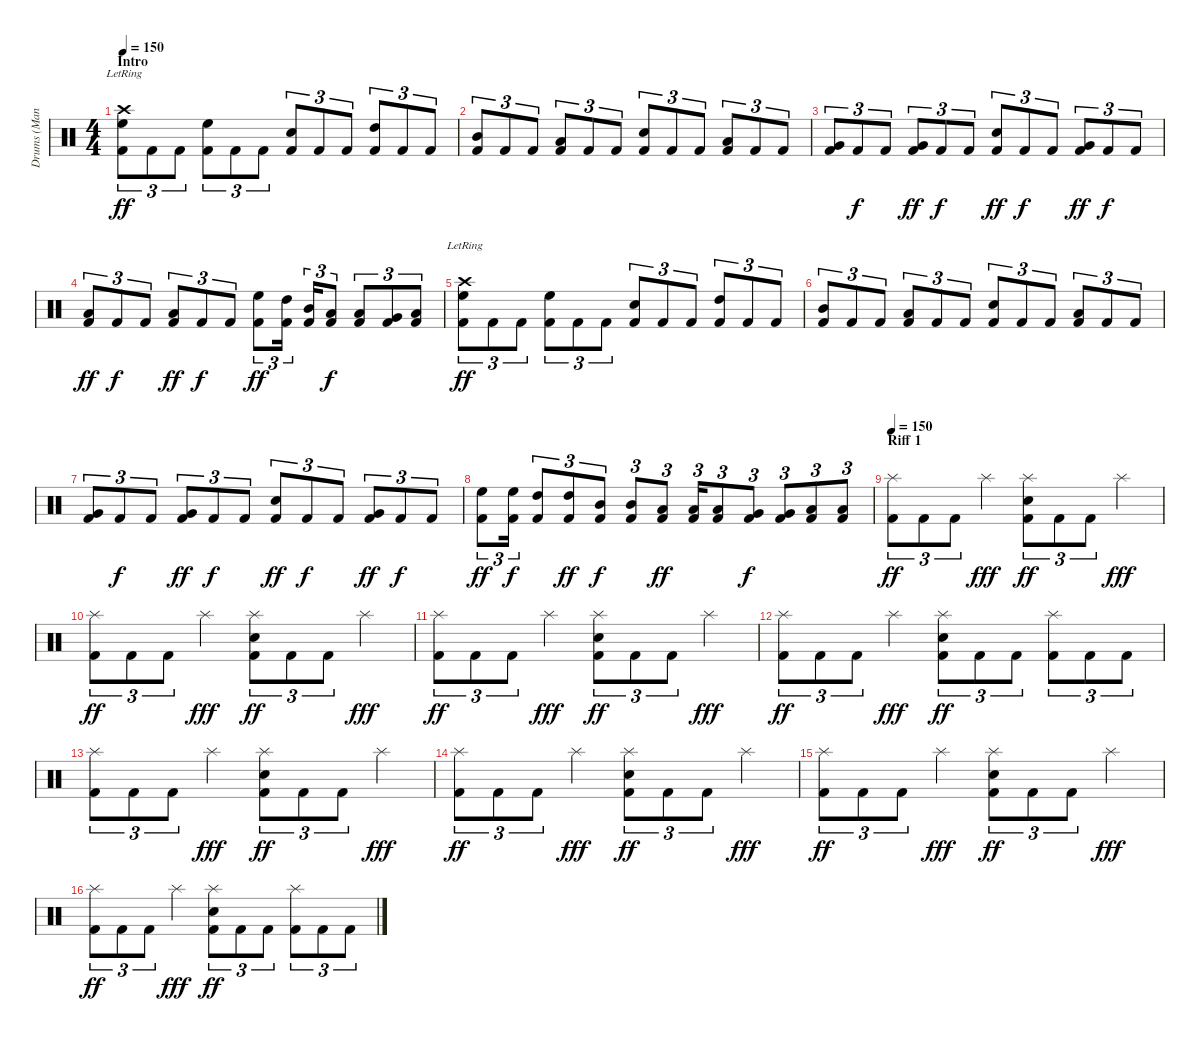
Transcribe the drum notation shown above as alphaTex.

\track ("Drums (Mancino)" "Drums (Man") {instrument percussion}
\staff {score}
\articulation defaults
\ts (4 4)
\section ("" "Intro")
\tempo 150
\clef neutral
\ks c
("Crash high (hit)"{lr} "High Floor Tom (hit)" "Kick (hit) 2").8{tu (3 2) dy ff} "Kick (hit) 2".8{tu (3 2)} "Kick (hit) 2".8{tu (3 2)} ("High Floor Tom (hit)" "Kick (hit) 2").8{tu (3 2)} "Kick (hit) 2".8{tu (3 2)} "Kick (hit) 2".8{tu (3 2)} ("Electric Snare (hit)" "Kick (hit) 2").8{tu (3 2)} "Kick (hit) 2".8{tu (3 2)} "Kick (hit) 2".8{tu (3 2)} ("High Tom (hit)" "Kick (hit) 2").8{tu (3 2)} "Kick (hit) 2".8{tu (3 2)} "Kick (hit) 2".8{tu (3 2)} |
("Mid Tom (hit)" "Kick (hit) 2").8{tu (3 2)} "Kick (hit) 2".8{tu (3 2)} "Kick (hit) 2".8{tu (3 2)} ("Low Tom (hit)" "Kick (hit) 2").8{tu (3 2)} "Kick (hit) 2".8{tu (3 2)} "Kick (hit) 2".8{tu (3 2)} ("Electric Snare (hit)" "Kick (hit) 2").8{tu (3 2)} "Kick (hit) 2".8{tu (3 2)} "Kick (hit) 2".8{tu (3 2)} ("Low Tom (hit)" "Kick (hit) 2").8{tu (3 2)} "Kick (hit) 2".8{tu (3 2)} "Kick (hit) 2".8{tu (3 2)} |
("Very Low Tom (hit)" "Kick (hit) 2").8{tu (3 2)} "Kick (hit) 2".8{tu (3 2) dy f} "Kick (hit) 2".8{tu (3 2)} ("Very Low Tom (hit)" "Kick (hit) 2").8{tu (3 2) dy ff} "Kick (hit) 2".8{tu (3 2) dy f} "Kick (hit) 2".8{tu (3 2)} ("Electric Snare (hit)" "Kick (hit) 2").8{tu (3 2) dy ff} "Kick (hit) 2".8{tu (3 2) dy f} "Kick (hit) 2".8{tu (3 2)} ("Very Low Tom (hit)" "Kick (hit) 2").8{tu (3 2) dy ff} "Kick (hit) 2".8{tu (3 2) dy f} "Kick (hit) 2".8{tu (3 2)} |
("Low Floor Tom (hit)" "Kick (hit) 2").8{tu (3 2) dy ff} "Kick (hit) 2".8{tu (3 2) dy f} "Kick (hit) 2".8{tu (3 2)} ("Low Floor Tom (hit)" "Kick (hit) 2").8{tu (3 2) dy ff} "Kick (hit) 2".8{tu (3 2) dy f} "Kick (hit) 2".8{tu (3 2)} ("High Floor Tom (hit)" "Kick (hit) 2").8{tu (3 2) dy ff} ("High Tom (hit)" "Kick (hit) 2").16{tu (3 2)} ("Mid Tom (hit)" "Kick (hit) 2").16{tu (3 2)} ("Low Tom (hit)" "Kick (hit) 2").8{tu (3 2) dy f} ("Low Tom (hit)" "Kick (hit) 2").8{tu (3 2)} ("Very Low Tom (hit)" "Kick (hit) 2").8{tu (3 2)} ("Low Floor Tom (hit)" "Kick (hit) 2").8{tu (3 2)} |
("Crash high (hit)"{lr} "High Floor Tom (hit)" "Kick (hit) 2").8{tu (3 2) dy ff} "Kick (hit) 2".8{tu (3 2)} "Kick (hit) 2".8{tu (3 2)} ("High Floor Tom (hit)" "Kick (hit) 2").8{tu (3 2)} "Kick (hit) 2".8{tu (3 2)} "Kick (hit) 2".8{tu (3 2)} ("Electric Snare (hit)" "Kick (hit) 2").8{tu (3 2)} "Kick (hit) 2".8{tu (3 2)} "Kick (hit) 2".8{tu (3 2)} ("High Tom (hit)" "Kick (hit) 2").8{tu (3 2)} "Kick (hit) 2".8{tu (3 2)} "Kick (hit) 2".8{tu (3 2)} |
("Mid Tom (hit)" "Kick (hit) 2").8{tu (3 2)} "Kick (hit) 2".8{tu (3 2)} "Kick (hit) 2".8{tu (3 2)} ("Low Tom (hit)" "Kick (hit) 2").8{tu (3 2)} "Kick (hit) 2".8{tu (3 2)} "Kick (hit) 2".8{tu (3 2)} ("Electric Snare (hit)" "Kick (hit) 2").8{tu (3 2)} "Kick (hit) 2".8{tu (3 2)} "Kick (hit) 2".8{tu (3 2)} ("Low Tom (hit)" "Kick (hit) 2").8{tu (3 2)} "Kick (hit) 2".8{tu (3 2)} "Kick (hit) 2".8{tu (3 2)} |
("Very Low Tom (hit)" "Kick (hit) 2").8{tu (3 2)} "Kick (hit) 2".8{tu (3 2) dy f} "Kick (hit) 2".8{tu (3 2)} ("Very Low Tom (hit)" "Kick (hit) 2").8{tu (3 2) dy ff} "Kick (hit) 2".8{tu (3 2) dy f} "Kick (hit) 2".8{tu (3 2)} ("Electric Snare (hit)" "Kick (hit) 2").8{tu (3 2) dy ff} "Kick (hit) 2".8{tu (3 2) dy f} "Kick (hit) 2".8{tu (3 2)} ("Very Low Tom (hit)" "Kick (hit) 2").8{tu (3 2) dy ff} "Kick (hit) 2".8{tu (3 2) dy f} "Kick (hit) 2".8{tu (3 2)} |
("High Floor Tom (hit)" "Kick (hit) 2").8{tu (3 2) dy ff} ("High Floor Tom (hit)" "Kick (hit) 2").16{tu (3 2) dy f} ("High Tom (hit)" "Kick (hit) 2").8{tu (3 2)} ("High Tom (hit)" "Kick (hit) 2").8{tu (3 2) dy ff} ("Mid Tom (hit)" "Kick (hit) 2").8{tu (3 2) dy f} ("Mid Tom (hit)" "Kick (hit) 2").8{tu (3 2)} ("Low Tom (hit)" "Kick (hit) 2").8{tu (3 2) dy ff} ("Low Tom (hit)" "Kick (hit) 2").16{tu (3 2)} ("Low Tom (hit)" "Kick (hit) 2").8{tu (3 2)} ("Very Low Tom (hit)" "Kick (hit) 2").8{tu (3 2) dy f} ("Very Low Tom (hit)" "Kick (hit) 2").8{tu (3 2)} ("Low Floor Tom (hit)" "Kick (hit) 2").8{tu (3 2)} ("Low Floor Tom (hit)" "Kick (hit) 2").8{tu (3 2)} |
\section ("" "Riff 1")
\tempo 150
("Splash (hit)" "Kick (hit) 2").8{tu (3 2) dy ff} "Kick (hit) 2".8{tu (3 2)} "Kick (hit) 2".8{tu (3 2)} "Splash (hit)".4{dy fff} ("Splash (hit)" "Electric Snare (hit)" "Kick (hit) 2").8{tu (3 2) dy ff} "Kick (hit) 2".8{tu (3 2)} "Kick (hit) 2".8{tu (3 2)} "Splash (hit)".4{dy fff} |
("Splash (hit)" "Kick (hit) 2").8{tu (3 2) dy ff} "Kick (hit) 2".8{tu (3 2)} "Kick (hit) 2".8{tu (3 2)} "Splash (hit)".4{dy fff} ("Splash (hit)" "Electric Snare (hit)" "Kick (hit) 2").8{tu (3 2) dy ff} "Kick (hit) 2".8{tu (3 2)} "Kick (hit) 2".8{tu (3 2)} "Splash (hit)".4{dy fff} |
("Splash (hit)" "Kick (hit) 2").8{tu (3 2) dy ff} "Kick (hit) 2".8{tu (3 2)} "Kick (hit) 2".8{tu (3 2)} "Splash (hit)".4{dy fff} ("Splash (hit)" "Electric Snare (hit)" "Kick (hit) 2").8{tu (3 2) dy ff} "Kick (hit) 2".8{tu (3 2)} "Kick (hit) 2".8{tu (3 2)} "Splash (hit)".4{dy fff} |
("Splash (hit)" "Kick (hit) 2").8{tu (3 2) dy ff} "Kick (hit) 2".8{tu (3 2)} "Kick (hit) 2".8{tu (3 2)} "Splash (hit)".4{dy fff} ("Splash (hit)" "Electric Snare (hit)" "Kick (hit) 2").8{tu (3 2) dy ff} "Kick (hit) 2".8{tu (3 2)} "Kick (hit) 2".8{tu (3 2)} ("Splash (hit)" "Kick (hit) 2").8{tu (3 2)} "Kick (hit) 2".8{tu (3 2)} "Kick (hit) 2".8{tu (3 2)} |
("Splash (hit)" "Kick (hit) 2").8{tu (3 2)} "Kick (hit) 2".8{tu (3 2)} "Kick (hit) 2".8{tu (3 2)} "Splash (hit)".4{dy fff} ("Splash (hit)" "Electric Snare (hit)" "Kick (hit) 2").8{tu (3 2) dy ff} "Kick (hit) 2".8{tu (3 2)} "Kick (hit) 2".8{tu (3 2)} "Splash (hit)".4{dy fff} |
("Splash (hit)" "Kick (hit) 2").8{tu (3 2) dy ff} "Kick (hit) 2".8{tu (3 2)} "Kick (hit) 2".8{tu (3 2)} "Splash (hit)".4{dy fff} ("Splash (hit)" "Electric Snare (hit)" "Kick (hit) 2").8{tu (3 2) dy ff} "Kick (hit) 2".8{tu (3 2)} "Kick (hit) 2".8{tu (3 2)} "Splash (hit)".4{dy fff} |
("Splash (hit)" "Kick (hit) 2").8{tu (3 2) dy ff} "Kick (hit) 2".8{tu (3 2)} "Kick (hit) 2".8{tu (3 2)} "Splash (hit)".4{dy fff} ("Splash (hit)" "Electric Snare (hit)" "Kick (hit) 2").8{tu (3 2) dy ff} "Kick (hit) 2".8{tu (3 2)} "Kick (hit) 2".8{tu (3 2)} "Splash (hit)".4{dy fff} |
("Splash (hit)" "Kick (hit) 2").8{tu (3 2) dy ff} "Kick (hit) 2".8{tu (3 2)} "Kick (hit) 2".8{tu (3 2)} "Splash (hit)".4{dy fff} ("Splash (hit)" "Electric Snare (hit)" "Kick (hit) 2").8{tu (3 2) dy ff} "Kick (hit) 2".8{tu (3 2)} "Kick (hit) 2".8{tu (3 2)} ("Splash (hit)" "Kick (hit) 2").8{tu (3 2)} "Kick (hit) 2".8{tu (3 2)} "Kick (hit) 2".8{tu (3 2)}
